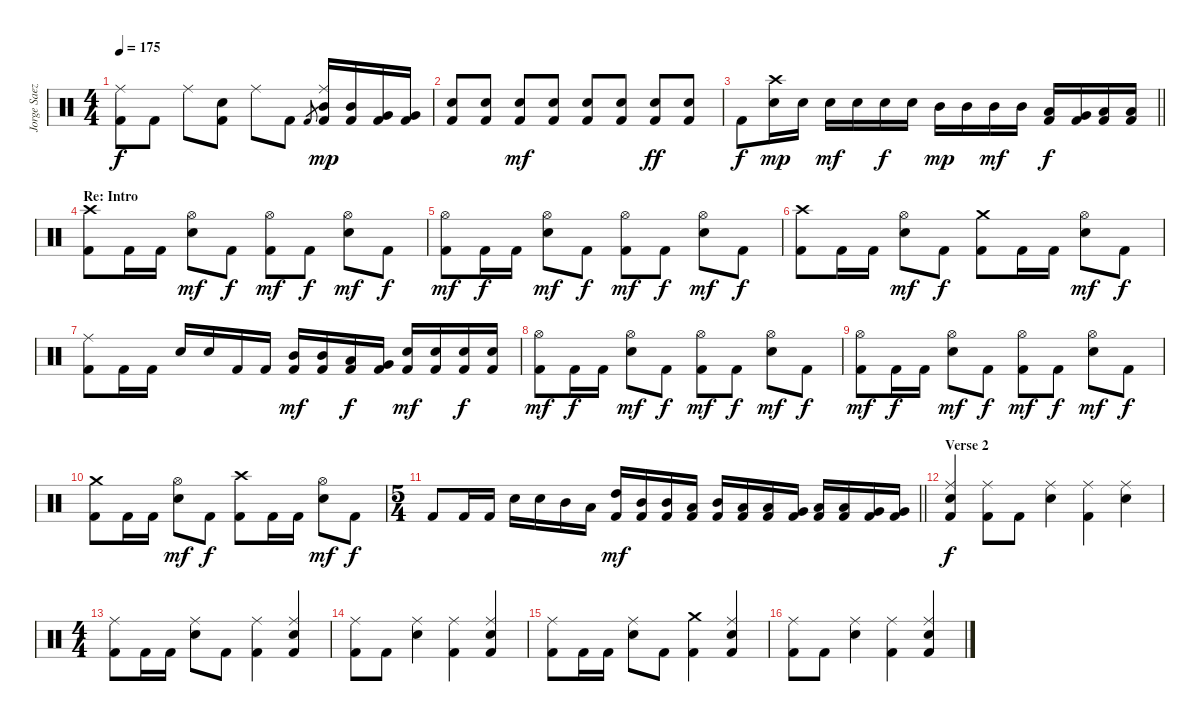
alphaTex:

\track ("Jorge Saez, Drums" "Jorge Saez") {instrument percussion}
\staff
\articulation defaults
\ts (4 4)
\tempo 175
\clef neutral
\ks c
("Kick (hit) 2" "Ride (middle)").8{dy f} "Kick (hit) 2".8 "Ride (middle)".8 ("Kick (hit) 2" "Electric Snare (hit)").8 "Ride (middle)".8 "Kick (hit) 2".8 "Kick (hit) 2".8{gr} ("Kick (hit) 2" "Mid Tom (hit)" "Ride (middle)").16{dy mp} ("Kick (hit) 2" "Mid Tom (hit)").16 ("Kick (hit) 2" "Very Low Tom (hit)").16 ("Kick (hit) 2" "Very Low Tom (hit)").16 |
("Kick (hit) 2" "Electric Snare (hit)").8 ("Kick (hit) 2" "Electric Snare (hit)").8 ("Kick (hit) 2" "Electric Snare (hit)").8{dy mf} ("Kick (hit) 2" "Electric Snare (hit)").8 ("Kick (hit) 2" "Electric Snare (hit)").8 ("Kick (hit) 2" "Electric Snare (hit)").8 ("Kick (hit) 2" "Electric Snare (hit)").8{dy ff} ("Kick (hit) 2" "Electric Snare (hit)").8 |
\barLineRight lightlight "Kick (hit) 2".8{dy f}
("Electric Snare (hit)" "Crash high (hit)").16{dy mp} "Electric Snare (hit)".16 "Electric Snare (hit)".16{dy mf} "Electric Snare (hit)".16 "Electric Snare (hit)".16{dy f} "Electric Snare (hit)".16 "Mid Tom (hit)".16{dy mp} "Mid Tom (hit)".16 "Mid Tom (hit)".16{dy mf} "Mid Tom (hit)".16 ("Kick (hit) 2" "Low Tom (hit)").16{dy f} ("Kick (hit) 2" "Very Low Tom (hit)").16 ("Kick (hit) 2" "Low Floor Tom (hit)").16 ("Kick (hit) 2" "Low Floor Tom (hit)").16 |
\section ("" "Re: Intro")
("Kick (hit) 2" "Crash high (hit)").8 "Kick (hit) 2".16 "Kick (hit) 2".16 ("Electric Snare (hit)" "Hi-Hat (open)").8{dy mf} "Kick (hit) 2".8{dy f} ("Kick (hit) 2" "Hi-Hat (open)").8{dy mf} "Kick (hit) 2".8{dy f} ("Electric Snare (hit)" "Hi-Hat (open)").8{dy mf} "Kick (hit) 2".8{dy f} |
("Kick (hit) 2" "Hi-Hat (open)").8{dy mf} "Kick (hit) 2".16{dy f} "Kick (hit) 2".16 ("Electric Snare (hit)" "Hi-Hat (open)").8{dy mf} "Kick (hit) 2".8{dy f} ("Kick (hit) 2" "Hi-Hat (open)").8{dy mf} "Kick (hit) 2".8{dy f} ("Electric Snare (hit)" "Hi-Hat (open)").8{dy mf} "Kick (hit) 2".8{dy f} |
("Kick (hit) 2" "Crash high (hit)").8 "Kick (hit) 2".16 "Kick (hit) 2".16 ("Electric Snare (hit)" "Hi-Hat (open)").8{dy mf} "Kick (hit) 2".8{dy f} ("Kick (hit) 2" "Crash medium (hit)").8 "Kick (hit) 2".16 "Kick (hit) 2".16 ("Electric Snare (hit)" "Hi-Hat (open)").8{dy mf} "Kick (hit) 2".8{dy f} |
("Kick (hit) 2" "Ride (middle)").8 "Kick (hit) 2".16 "Kick (hit) 2".16 "Electric Snare (hit)".16 "Electric Snare (hit)".16 "Kick (hit) 2".16 "Kick (hit) 2".16 ("Kick (hit) 2" "Mid Tom (hit)").16{dy mf} ("Kick (hit) 2" "Mid Tom (hit)").16 ("Kick (hit) 2" "Low Tom (hit)").16{dy f} ("Kick (hit) 2" "Very Low Tom (hit)").16 ("Kick (hit) 2" "Electric Snare (hit)").16{dy mf} ("Kick (hit) 2" "Electric Snare (hit)").16 ("Kick (hit) 2" "Electric Snare (hit)").16{dy f} ("Kick (hit) 2" "Electric Snare (hit)").16 |
("Kick (hit) 2" "Hi-Hat (open)").8{dy mf} "Kick (hit) 2".16{dy f} "Kick (hit) 2".16 ("Electric Snare (hit)" "Hi-Hat (open)").8{dy mf} "Kick (hit) 2".8{dy f} ("Kick (hit) 2" "Hi-Hat (open)").8{dy mf} "Kick (hit) 2".8{dy f} ("Electric Snare (hit)" "Hi-Hat (open)").8{dy mf} "Kick (hit) 2".8{dy f} |
("Kick (hit) 2" "Hi-Hat (open)").8{dy mf} "Kick (hit) 2".16{dy f} "Kick (hit) 2".16 ("Electric Snare (hit)" "Hi-Hat (open)").8{dy mf} "Kick (hit) 2".8{dy f} ("Kick (hit) 2" "Hi-Hat (open)").8{dy mf} "Kick (hit) 2".8{dy f} ("Electric Snare (hit)" "Hi-Hat (open)").8{dy mf} "Kick (hit) 2".8{dy f} |
("Kick (hit) 2" "Crash medium (hit)").8 "Kick (hit) 2".16 "Kick (hit) 2".16 ("Electric Snare (hit)" "Hi-Hat (open)").8{dy mf} "Kick (hit) 2".8{dy f} ("Kick (hit) 2" "Crash high (hit)").8 "Kick (hit) 2".16 "Kick (hit) 2".16 ("Electric Snare (hit)" "Hi-Hat (open)").8{dy mf} "Kick (hit) 2".8{dy f} |
\ts (5 4)
\barLineRight lightlight "Kick (hit) 2".8 "Kick (hit) 2".16 "Kick (hit) 2".16 "Electric Snare (hit)".16 "Electric Snare (hit)".16 "Mid Tom (hit)".16 "Low Tom (hit)".16
("Kick (hit) 2" "High Tom (hit)").16{dy mf} ("Kick (hit) 2" "Mid Tom (hit)").16 ("Kick (hit) 2" "Mid Tom (hit)").16 ("Kick (hit) 2" "Low Tom (hit)").16 ("Kick (hit) 2" "Mid Tom (hit)").16 ("Kick (hit) 2" "Low Tom (hit)").16 ("Kick (hit) 2" "Low Tom (hit)").16 ("Kick (hit) 2" "Very Low Tom (hit)").16 ("Kick (hit) 2" "Low Tom (hit)").16 ("Kick (hit) 2" "Low Tom (hit)").16 ("Kick (hit) 2" "Very Low Tom (hit)").16 ("Kick (hit) 2" "Very Low Tom (hit)").16 |
\section ("" "Verse 2")
("Kick (hit) 2" "Electric Snare (hit)" "Ride (middle)").4{dy f} ("Kick (hit) 2" "Ride (middle)").8 "Kick (hit) 2".8 ("Electric Snare (hit)" "Ride (middle)").4 ("Kick (hit) 2" "Ride (middle)").4 ("Electric Snare (hit)" "Ride (middle)").4 |
\ts (4 4)
("Kick (hit) 2" "Ride (middle)").8 "Kick (hit) 2".16 "Kick (hit) 2".16 ("Electric Snare (hit)" "Ride (middle)").8 "Kick (hit) 2".8 ("Kick (hit) 2" "Ride (middle)").4 ("Kick (hit) 2" "Electric Snare (hit)" "Ride (middle)").4 |
("Kick (hit) 2" "Ride (middle)").8 "Kick (hit) 2".8 ("Electric Snare (hit)" "Ride (middle)").4 ("Kick (hit) 2" "Ride (middle)").4 ("Kick (hit) 2" "Electric Snare (hit)" "Ride (middle)").4 |
("Kick (hit) 2" "Ride (middle)").8 "Kick (hit) 2".16 "Kick (hit) 2".16 ("Electric Snare (hit)" "Ride (middle)").8 "Kick (hit) 2".8 ("Kick (hit) 2" "Crash medium (hit)").4 ("Kick (hit) 2" "Electric Snare (hit)" "Ride (middle)").4 |
("Kick (hit) 2" "Ride (middle)").8 "Kick (hit) 2".8 ("Electric Snare (hit)" "Ride (middle)").4 ("Kick (hit) 2" "Ride (middle)").4 ("Kick (hit) 2" "Electric Snare (hit)" "Ride (middle)").4
